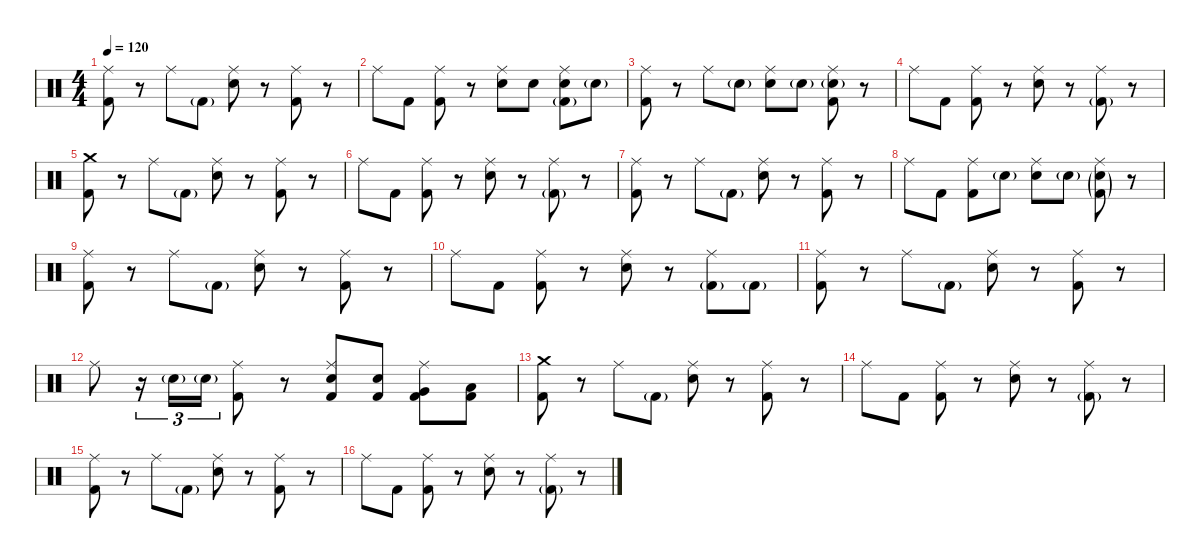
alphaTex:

\defaultSystemsLayout 4
\hideDynamics
\bracketExtendMode nobrackets
\singleTrackTrackNamePolicy hidden
\multiTrackTrackNamePolicy hidden
\firstSystemTrackNameMode fullname
\firstSystemTrackNameOrientation horizontal
\otherSystemsTrackNameOrientation horizontal
\track ("Martin Axenrot - Drums" "drm.") {instrument percussion}
\staff {score}
\articulation defaults
\ts (4 4)
\tempo 120
\clef neutral
\ks c
("Ride (middle)" "Kick (hit) 2").8{dy f beam Down} r.8{beam Down} "Ride (middle)".8{dy mf beam Down} "Kick (hit) 2"{g}.8{beam Down} ("Ride (middle)" "Snare (hit) 2").8{dy f beam Down} r.8{beam Down} ("Ride (middle)" "Kick (hit) 2").8{dy mf beam Down} r.8{beam Down} |
"Ride (middle)".8{dy f beam Down} "Kick (hit) 2".8{dy mf beam Down} ("Ride (middle)" "Kick (hit) 2").8{beam Down} r.8{beam Down} ("Ride (middle)" "Snare (hit) 2").8{dy f beam Down} "Snare (hit) 2".8{dy mf beam Down} ("Ride (middle)" "Snare (hit) 2" "Kick (hit) 2"{g}).8{dy f beam Down} "Snare (hit) 2"{g}.8{dy mf beam Down} |
("Ride (middle)" "Kick (hit) 2").8{dy f beam Down} r.8{beam Down} "Ride (middle)".8{dy mf beam Down} "Snare (hit) 2"{g}.8{beam Down} ("Ride (middle)" "Snare (hit) 2").8{dy f beam Down} "Snare (hit) 2"{g}.8{dy mf beam Down} ("Ride (middle)" "Snare (hit) 2"{g} "Kick (hit) 2").8{beam Down} r.8{beam Down} |
"Ride (middle)".8{dy f beam Down} "Kick (hit) 2".8{dy mf beam Down} ("Ride (middle)" "Kick (hit) 2").8{beam Down} r.8{beam Down} ("Ride (middle)" "Snare (hit) 2").8{dy f beam Down} r.8{beam Down} ("Ride (middle)" "Kick (hit) 2"{g}).8{dy mf beam Down} r.8{beam Down} |
("Crash medium (hit)" "Kick (hit) 2").8{dy f beam Down} r.8{beam Down} "Ride (middle)".8{dy mf beam Down} "Kick (hit) 2"{g}.8{beam Down} ("Ride (middle)" "Snare (hit) 2").8{dy f beam Down} r.8{beam Down} ("Ride (middle)" "Kick (hit) 2").8{dy mf beam Down} r.8{beam Down} |
"Ride (middle)".8{dy f beam Down} "Kick (hit) 2".8{dy mf beam Down} ("Ride (middle)" "Kick (hit) 2").8{beam Down} r.8{beam Down} ("Ride (middle)" "Snare (hit) 2").8{dy f beam Down} r.8{beam Down} ("Ride (middle)" "Kick (hit) 2"{g}).8{dy mf beam Down} r.8{beam Down} |
("Ride (middle)" "Kick (hit) 2").8{dy f beam Down} r.8{beam Down} "Ride (middle)".8{dy mf beam Down} "Kick (hit) 2"{g}.8{beam Down} ("Ride (middle)" "Snare (hit) 2").8{dy f beam Down} r.8{beam Down} ("Ride (middle)" "Kick (hit) 2").8{dy mf beam Down} r.8{beam Down} |
"Ride (middle)".8{dy f beam Down} "Kick (hit) 2".8{dy mf beam Down} ("Ride (middle)" "Kick (hit) 2").8{beam Down} "Snare (hit) 2"{g}.8{beam Down} ("Ride (middle)" "Snare (hit) 2").8{dy f beam Down} "Snare (hit) 2"{g}.8{dy mf beam Down} ("Ride (middle)" "Snare (hit) 2"{g} "Kick (hit) 2"{g}).8{beam Down} r.8{beam Down} |
("Ride (middle)" "Kick (hit) 2").8{dy f beam Down} r.8{beam Down} "Ride (middle)".8{dy mf beam Down} "Kick (hit) 2"{g}.8{beam Down} ("Ride (middle)" "Snare (hit) 2").8{dy f beam Down} r.8{beam Down} ("Ride (middle)" "Kick (hit) 2").8{dy mf beam Down} r.8{beam Down} |
"Ride (middle)".8{dy f beam Down} "Kick (hit) 2".8{dy mf beam Down} ("Ride (middle)" "Kick (hit) 2").8{beam Down} r.8{beam Down} ("Ride (middle)" "Snare (hit) 2").8{dy f beam Down} r.8{beam Down} ("Ride (middle)" "Kick (hit) 2"{g}).8{dy mf beam Down} "Kick (hit) 2"{g}.8{beam Down} |
("Ride (middle)" "Kick (hit) 2").8{dy f beam Down} r.8{beam Down} "Ride (middle)".8{dy mf beam Down} "Kick (hit) 2"{g}.8{beam Down} ("Ride (middle)" "Snare (hit) 2").8{dy f beam Down} r.8{beam Down} ("Ride (middle)" "Kick (hit) 2").8{dy mf beam Down} r.8{beam Down} |
"Ride (middle)".8{dy f beam Down} r.16{tu (3 2) beam Down} "Snare (hit) 2"{g}.16{tu (3 2) dy mf beam Down} "Snare (hit) 2"{g}.16{tu (3 2) beam Down} ("Ride (middle)" "Kick (hit) 2").8{beam Down} r.8{beam Down} ("Ride (middle)" "Snare (hit) 2" "Kick (hit) 2").8{dy f beam Up} ("Snare (hit) 2" "Kick (hit) 2").8{dy mf beam Up} ("Ride (middle)" "Very Low Tom (hit)" "Kick (hit) 2").8{beam Down} ("Low Floor Tom (hit)" "Kick (hit) 2").8{dy f beam Down} |
("Crash medium (hit)" "Kick (hit) 2").8{beam Down} r.8{beam Down} "Ride (middle)".8{dy mf beam Down} "Kick (hit) 2"{g}.8{beam Down} ("Ride (middle)" "Snare (hit) 2").8{dy f beam Down} r.8{beam Down} ("Ride (middle)" "Kick (hit) 2").8{dy mf beam Down} r.8{beam Down} |
"Ride (middle)".8{dy f beam Down} "Kick (hit) 2".8{dy mf beam Down} ("Ride (middle)" "Kick (hit) 2").8{beam Down} r.8{beam Down} ("Ride (middle)" "Snare (hit) 2").8{dy f beam Down} r.8{beam Down} ("Ride (middle)" "Kick (hit) 2"{g}).8{dy mf beam Down} r.8{beam Down} |
("Ride (middle)" "Kick (hit) 2").8{dy f beam Down} r.8{beam Down} "Ride (middle)".8{dy mf beam Down} "Kick (hit) 2"{g}.8{beam Down} ("Ride (middle)" "Snare (hit) 2").8{dy f beam Down} r.8{beam Down} ("Ride (middle)" "Kick (hit) 2").8{dy mf beam Down} r.8{beam Down} |
"Ride (middle)".8{dy f beam Down} "Kick (hit) 2".8{dy mf beam Down} ("Ride (middle)" "Kick (hit) 2").8{beam Down} r.8{beam Down} ("Ride (middle)" "Snare (hit) 2").8{dy f beam Down} r.8{beam Down} ("Ride (middle)" "Kick (hit) 2"{g}).8{dy mf beam Down} r.8{beam Down}
